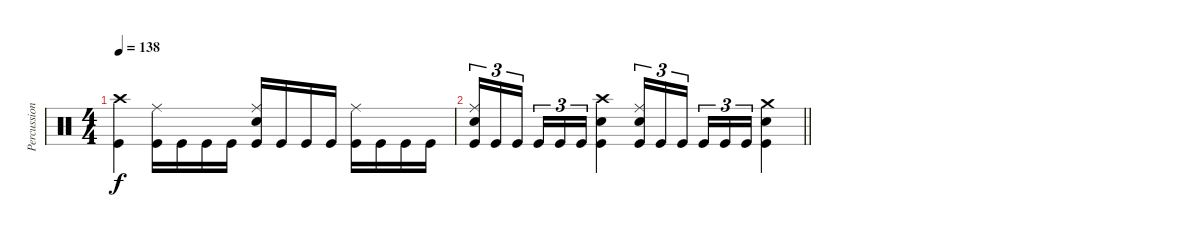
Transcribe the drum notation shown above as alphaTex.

\track ("Percussion" "Percussion") {instrument percussion}
\staff {score}
\articulation defaults
\ts (4 4)
\tempo 138
\clef neutral
\ks c
("Crash high (hit)" "Kick (hit)").4{dy f} ("Ride (middle)" "Kick (hit)").16 "Kick (hit)".16 "Kick (hit)".16 "Kick (hit)".16 ("Ride (middle)" "Electric Snare (hit)" "Kick (hit)").16 "Kick (hit)".16 "Kick (hit)".16 "Kick (hit)".16 ("Ride (middle)" "Kick (hit)").16 "Kick (hit)".16 "Kick (hit)".16 "Kick (hit)".16 |
\barLineRight lightlight
("Ride (middle)" "Electric Snare (hit)" "Kick (hit)").16{tu (3 2)} "Kick (hit)".16{tu (3 2)} "Kick (hit)".16{tu (3 2) beam splitsecondary} "Kick (hit)".16{tu (3 2)} "Kick (hit)".16{tu (3 2)} "Kick (hit)".16{tu (3 2)} ("Crash high (hit)" "Electric Snare (hit)" "Kick (hit)").4 ("Ride (middle)" "Electric Snare (hit)" "Kick (hit)").16{tu (3 2)} "Kick (hit)".16{tu (3 2)} "Kick (hit)".16{tu (3 2) beam splitsecondary} "Kick (hit)".16{tu (3 2)} "Kick (hit)".16{tu (3 2)} "Kick (hit)".16{tu (3 2)} ("Crash medium (hit)" "Electric Snare (hit)" "Kick (hit)").4
